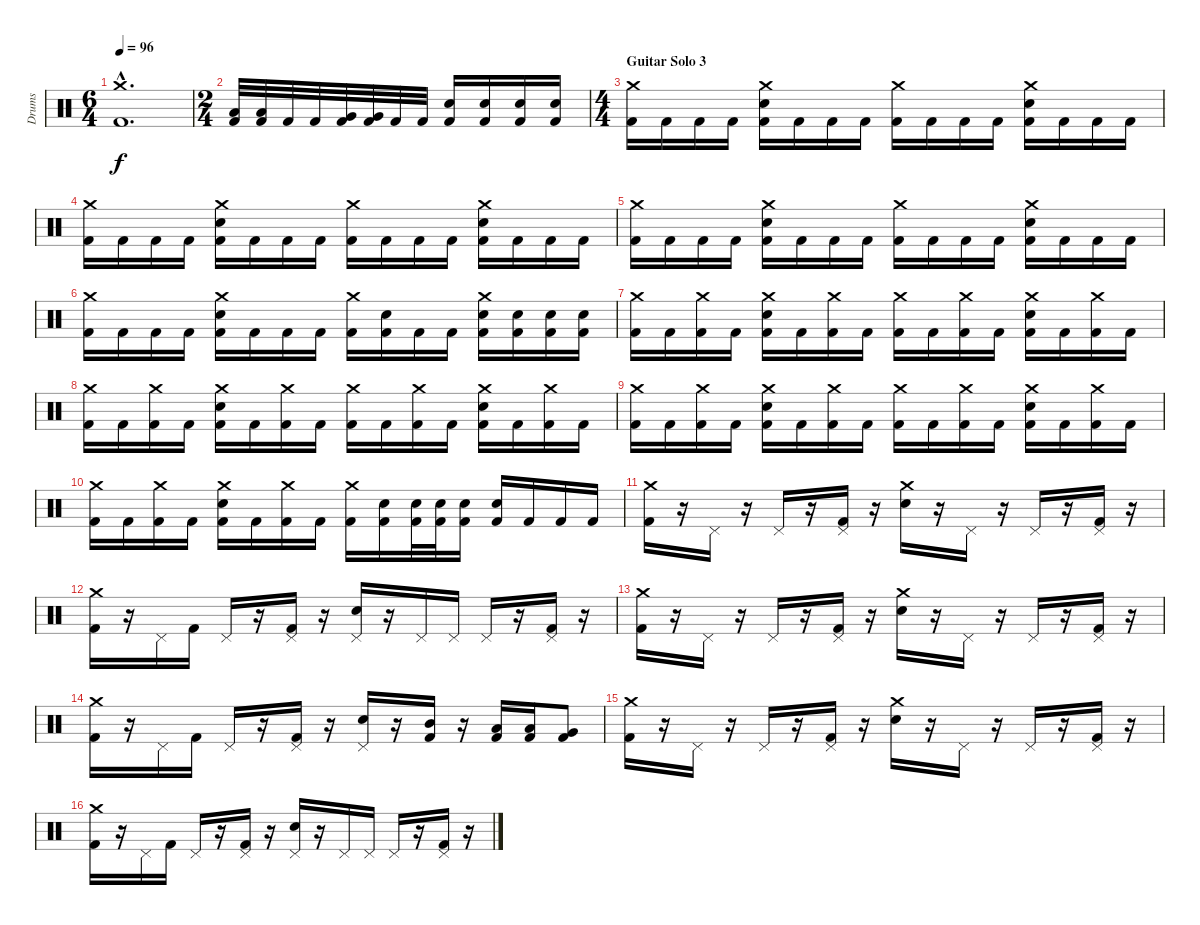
\track ("Drums" "Drums") {instrument percussion}
\staff {score}
\articulation defaults
\ts (6 4)
\tempo 96
\clef neutral
\ks c
("Crash medium (hit)"{hac} "Kick (hit) 2"{hac}).1{d dy f} |
\ts (2 4)
("Low Tom (hit)" "Kick (hit) 2").32 ("Low Tom (hit)" "Kick (hit) 2").32 "Kick (hit) 2".32 "Kick (hit) 2".32 ("Very Low Tom (hit)" "Kick (hit) 2").32 ("Very Low Tom (hit)" "Kick (hit) 2").32 "Kick (hit) 2".32 "Kick (hit) 2".32 ("Electric Snare (hit)" "Kick (hit) 2").16 ("Electric Snare (hit)" "Kick (hit) 2").16 ("Electric Snare (hit)" "Kick (hit) 2").16 ("Electric Snare (hit)" "Kick (hit) 2").16 |
\ts (4 4)
\section ("" "Guitar Solo 3")
("Crash medium (hit)" "Kick (hit) 2").16 "Kick (hit) 2".16 "Kick (hit) 2".16 "Kick (hit) 2".16 ("Crash medium (hit)" "Electric Snare (hit)" "Kick (hit) 2").16 "Kick (hit) 2".16 "Kick (hit) 2".16 "Kick (hit) 2".16 ("Crash medium (hit)" "Kick (hit) 2").16 "Kick (hit) 2".16 "Kick (hit) 2".16 "Kick (hit) 2".16 ("Crash medium (hit)" "Electric Snare (hit)" "Kick (hit) 2").16 "Kick (hit) 2".16 "Kick (hit) 2".16 "Kick (hit) 2".16 |
("Crash medium (hit)" "Kick (hit) 2").16 "Kick (hit) 2".16 "Kick (hit) 2".16 "Kick (hit) 2".16 ("Crash medium (hit)" "Electric Snare (hit)" "Kick (hit) 2").16 "Kick (hit) 2".16 "Kick (hit) 2".16 "Kick (hit) 2".16 ("Crash medium (hit)" "Kick (hit) 2").16 "Kick (hit) 2".16 "Kick (hit) 2".16 "Kick (hit) 2".16 ("Crash medium (hit)" "Electric Snare (hit)" "Kick (hit) 2").16 "Kick (hit) 2".16 "Kick (hit) 2".16 "Kick (hit) 2".16 |
("Crash medium (hit)" "Kick (hit) 2").16 "Kick (hit) 2".16 "Kick (hit) 2".16 "Kick (hit) 2".16 ("Crash medium (hit)" "Electric Snare (hit)" "Kick (hit) 2").16 "Kick (hit) 2".16 "Kick (hit) 2".16 "Kick (hit) 2".16 ("Crash medium (hit)" "Kick (hit) 2").16 "Kick (hit) 2".16 "Kick (hit) 2".16 "Kick (hit) 2".16 ("Crash medium (hit)" "Electric Snare (hit)" "Kick (hit) 2").16 "Kick (hit) 2".16 "Kick (hit) 2".16 "Kick (hit) 2".16 |
("Crash medium (hit)" "Kick (hit) 2").16 "Kick (hit) 2".16 "Kick (hit) 2".16 "Kick (hit) 2".16 ("Crash medium (hit)" "Electric Snare (hit)" "Kick (hit) 2").16 "Kick (hit) 2".16 "Kick (hit) 2".16 "Kick (hit) 2".16 ("Crash medium (hit)" "Kick (hit) 2").16 ("Electric Snare (hit)" "Kick (hit) 2").16 "Kick (hit) 2".16 "Kick (hit) 2".16 ("Crash medium (hit)" "Electric Snare (hit)" "Kick (hit) 2").16 ("Electric Snare (hit)" "Kick (hit) 2").16 ("Electric Snare (hit)" "Kick (hit) 2").16 ("Electric Snare (hit)" "Kick (hit) 2").16 |
("Crash medium (hit)" "Kick (hit) 2").16 "Kick (hit) 2".16 ("Crash medium (hit)" "Kick (hit) 2").16 "Kick (hit) 2".16 ("Crash medium (hit)" "Electric Snare (hit)" "Kick (hit) 2").16 "Kick (hit) 2".16 ("Crash medium (hit)" "Kick (hit) 2").16 "Kick (hit) 2".16 ("Crash medium (hit)" "Kick (hit) 2").16 "Kick (hit) 2".16 ("Crash medium (hit)" "Kick (hit) 2").16 "Kick (hit) 2".16 ("Crash medium (hit)" "Electric Snare (hit)" "Kick (hit) 2").16 "Kick (hit) 2".16 ("Crash medium (hit)" "Kick (hit) 2").16 "Kick (hit) 2".16 |
("Crash medium (hit)" "Kick (hit) 2").16 "Kick (hit) 2".16 ("Crash medium (hit)" "Kick (hit) 2").16 "Kick (hit) 2".16 ("Crash medium (hit)" "Electric Snare (hit)" "Kick (hit) 2").16 "Kick (hit) 2".16 ("Crash medium (hit)" "Kick (hit) 2").16 "Kick (hit) 2".16 ("Crash medium (hit)" "Kick (hit) 2").16 "Kick (hit) 2".16 ("Crash medium (hit)" "Kick (hit) 2").16 "Kick (hit) 2".16 ("Crash medium (hit)" "Electric Snare (hit)" "Kick (hit) 2").16 "Kick (hit) 2".16 ("Crash medium (hit)" "Kick (hit) 2").16 "Kick (hit) 2".16 |
("Crash medium (hit)" "Kick (hit) 2").16 "Kick (hit) 2".16 ("Crash medium (hit)" "Kick (hit) 2").16 "Kick (hit) 2".16 ("Crash medium (hit)" "Electric Snare (hit)" "Kick (hit) 2").16 "Kick (hit) 2".16 ("Crash medium (hit)" "Kick (hit) 2").16 "Kick (hit) 2".16 ("Crash medium (hit)" "Kick (hit) 2").16 "Kick (hit) 2".16 ("Crash medium (hit)" "Kick (hit) 2").16 "Kick (hit) 2".16 ("Crash medium (hit)" "Electric Snare (hit)" "Kick (hit) 2").16 "Kick (hit) 2".16 ("Crash medium (hit)" "Kick (hit) 2").16 "Kick (hit) 2".16 |
("Crash medium (hit)" "Kick (hit) 2").16 "Kick (hit) 2".16 ("Crash medium (hit)" "Kick (hit) 2").16 "Kick (hit) 2".16 ("Crash medium (hit)" "Electric Snare (hit)" "Kick (hit) 2").16 "Kick (hit) 2".16 ("Crash medium (hit)" "Kick (hit) 2").16 "Kick (hit) 2".16 ("Crash medium (hit)" "Kick (hit) 2").16 ("Electric Snare (hit)" "Kick (hit) 2").16 ("Electric Snare (hit)" "Kick (hit) 2").32 ("Electric Snare (hit)" "Kick (hit) 2").32 ("Electric Snare (hit)" "Kick (hit) 2").16 ("Electric Snare (hit)" "Kick (hit) 2").16 "Kick (hit) 2".16 "Kick (hit) 2".16 "Kick (hit) 2".16 |
\section ("" "")
("Crash medium (hit)" "Kick (hit) 2").16 r.16 "Pedal Hi-Hat (hit)".16 r.16 "Pedal Hi-Hat (hit)".16 r.16 ("Pedal Hi-Hat (hit)" "Kick (hit) 2").16 r.16 ("Crash medium (hit)" "Electric Snare (hit)").16 r.16 "Pedal Hi-Hat (hit)".16 r.16 "Pedal Hi-Hat (hit)".16 r.16 ("Pedal Hi-Hat (hit)" "Kick (hit) 2").16 r.16 |
("Crash medium (hit)" "Kick (hit) 2").16 r.16 "Pedal Hi-Hat (hit)".16 "Kick (hit) 2".16 "Pedal Hi-Hat (hit)".16 r.16 ("Pedal Hi-Hat (hit)" "Kick (hit) 2").16 r.16 ("Pedal Hi-Hat (hit)" "Electric Snare (hit)").16 r.16 "Pedal Hi-Hat (hit)".16 "Pedal Hi-Hat (hit)".16 "Pedal Hi-Hat (hit)".16 r.16 ("Pedal Hi-Hat (hit)" "Kick (hit) 2").16 r.16 |
("Crash medium (hit)" "Kick (hit) 2").16 r.16 "Pedal Hi-Hat (hit)".16 r.16 "Pedal Hi-Hat (hit)".16 r.16 ("Pedal Hi-Hat (hit)" "Kick (hit) 2").16 r.16 ("Crash medium (hit)" "Electric Snare (hit)").16 r.16 "Pedal Hi-Hat (hit)".16 r.16 "Pedal Hi-Hat (hit)".16 r.16 ("Pedal Hi-Hat (hit)" "Kick (hit) 2").16 r.16 |
("Crash medium (hit)" "Kick (hit) 2").16 r.16 "Pedal Hi-Hat (hit)".16 "Kick (hit) 2".16 "Pedal Hi-Hat (hit)".16 r.16 ("Pedal Hi-Hat (hit)" "Kick (hit) 2").16 r.16 ("Pedal Hi-Hat (hit)" "Electric Snare (hit)").16 r.16 ("Mid Tom (hit)" "Kick (hit) 2").16 r.16 ("Low Tom (hit)" "Kick (hit) 2").16 ("Low Tom (hit)" "Kick (hit) 2").16 ("Very Low Tom (hit)" "Kick (hit) 2").8 |
\section ("" "")
("Crash medium (hit)" "Kick (hit) 2").16 r.16 "Pedal Hi-Hat (hit)".16 r.16 "Pedal Hi-Hat (hit)".16 r.16 ("Pedal Hi-Hat (hit)" "Kick (hit) 2").16 r.16 ("Crash medium (hit)" "Electric Snare (hit)").16 r.16 "Pedal Hi-Hat (hit)".16 r.16 "Pedal Hi-Hat (hit)".16 r.16 ("Pedal Hi-Hat (hit)" "Kick (hit) 2").16 r.16 |
("Crash medium (hit)" "Kick (hit) 2").16 r.16 "Pedal Hi-Hat (hit)".16 "Kick (hit) 2".16 "Pedal Hi-Hat (hit)".16 r.16 ("Pedal Hi-Hat (hit)" "Kick (hit) 2").16 r.16 ("Pedal Hi-Hat (hit)" "Electric Snare (hit)").16 r.16 "Pedal Hi-Hat (hit)".16 "Pedal Hi-Hat (hit)".16 "Pedal Hi-Hat (hit)".16 r.16 ("Pedal Hi-Hat (hit)" "Kick (hit) 2").16 r.16
